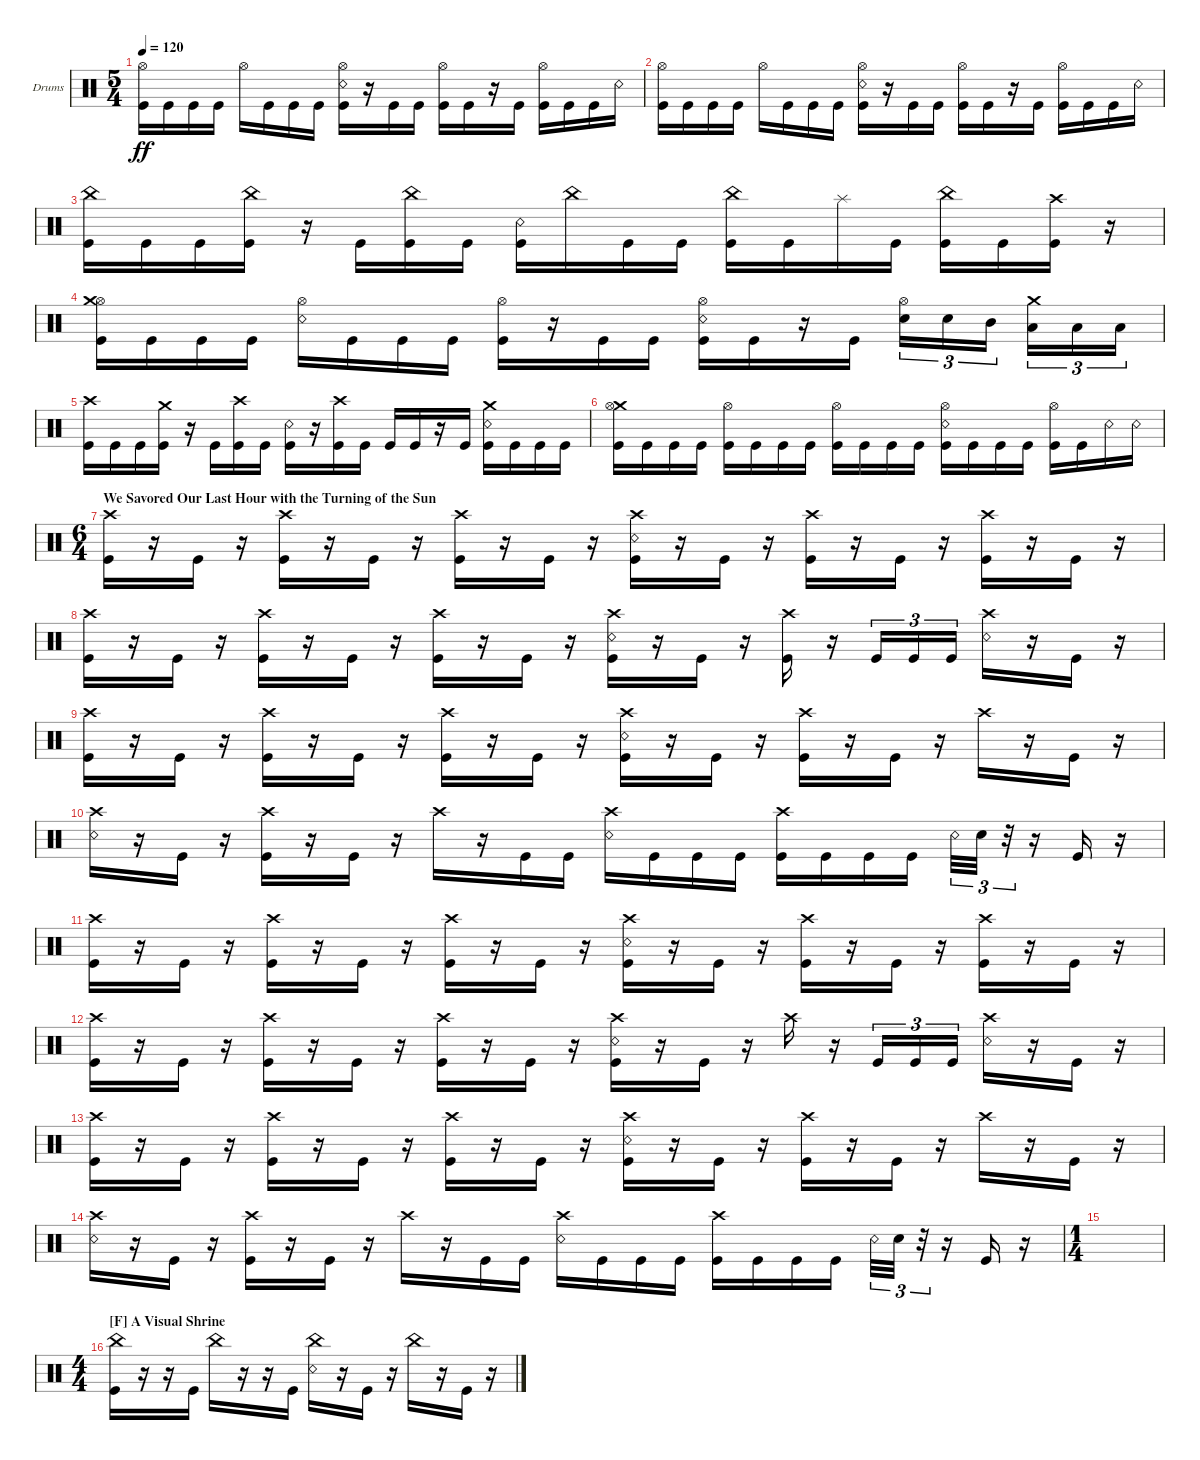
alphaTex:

\defaultSystemsLayout 4
\bracketExtendMode groupsimilarinstruments
\firstSystemTrackNameOrientation horizontal
\otherSystemsTrackNameOrientation horizontal
\track ("Drumkit" "Drums") {instrument percussion}
\staff {score}
\articulation defaults
\ts (5 4)
\tempo 120
\clef neutral
\ks c
("Hi-Hat (open)" "Kick (hit)").16{dy ff} "Kick (hit)".16 "Kick (hit)".16 "Kick (hit)".16 "Hi-Hat (open)".16 "Kick (hit)".16 "Kick (hit)".16 "Kick (hit)".16 ("Hi-Hat (open)" "Snare (rim shot)" "Kick (hit)").16 r.16 "Kick (hit)".16 "Kick (hit)".16 ("Hi-Hat (open)" "Kick (hit)").16 "Kick (hit)".16 r.16 "Kick (hit)".16 ("Hi-Hat (open)" "Kick (hit)").16 "Kick (hit)".16 "Kick (hit)".16 "Snare (rim shot)".16 |
("Hi-Hat (open)" "Kick (hit)").16 "Kick (hit)".16 "Kick (hit)".16 "Kick (hit)".16 "Hi-Hat (open)".16 "Kick (hit)".16 "Kick (hit)".16 "Kick (hit)".16 ("Hi-Hat (open)" "Snare (rim shot)" "Kick (hit)").16 r.16 "Kick (hit)".16 "Kick (hit)".16 ("Hi-Hat (open)" "Kick (hit)").16 "Kick (hit)".16 r.16 "Kick (hit)".16 ("Hi-Hat (open)" "Kick (hit)").16 "Kick (hit)".16 "Kick (hit)".16 "Snare (rim shot)".16 |
("China (hit)" "Kick (hit)").16 "Kick (hit)".16 "Kick (hit)".16 ("China (hit)" "Kick (hit)").16 r.16 "Kick (hit)".16 ("China (hit)" "Kick (hit)").16 "Kick (hit)".16 ("Kick (hit)" "Snare (rim shot)").16 "China (hit)".16 "Kick (hit)".16 "Kick (hit)".16 ("China (hit)" "Kick (hit)").16 "Kick (hit)".16 "Splash (hit)".16 "Kick (hit)".16 ("China (hit)" "Kick (hit)").16 "Kick (hit)".16 ("Crash high (hit)" "Kick (hit)").16 r.16 |
("Hi-Hat (open)" "Crash medium (hit)" "Kick (hit)").16 "Kick (hit)".16 "Kick (hit)".16 "Kick (hit)".16 ("Hi-Hat (open)" "Snare (rim shot)").16 "Kick (hit)".16 "Kick (hit)".16 "Kick (hit)".16 ("Hi-Hat (open)" "Kick (hit)").16 r.16 "Kick (hit)".16 "Kick (hit)".16 ("Hi-Hat (open)" "Kick (hit)" "Snare (rim shot)").16 "Kick (hit)".16 r.16 "Kick (hit)".16 ("Hi-Hat (open)" "Snare (hit) 2").16{tu (3 2)} "Snare (hit) 2".16{tu (3 2)} "Mid Tom (hit)".16{tu (3 2)} ("Crash medium (hit)" "Low Tom (hit)").16{tu (3 2)} "Low Tom (hit)".16{tu (3 2)} "Low Tom (hit)".16{tu (3 2)} |
("Crash high (hit)" "Kick (hit)").16 "Kick (hit)".16 "Kick (hit)".16 ("Crash medium (hit)" "Kick (hit)").16 r.16 "Kick (hit)".16 ("Crash high (hit)" "Kick (hit)").16 "Kick (hit)".16 ("Kick (hit)" "Snare (rim shot)").16 r.16 ("Kick (hit)" "Crash high (hit)").16 "Kick (hit)".16 "Kick (hit)".16 "Kick (hit)".16 r.16 "Kick (hit)".16 ("Kick (hit)" "Snare (rim shot)" "Crash medium (hit)").16 "Kick (hit)".16 "Kick (hit)".16 "Kick (hit)".16 |
("Kick (hit)" "Crash medium (hit)" "Hi-Hat (open)").16 "Kick (hit)".16 "Kick (hit)".16 "Kick (hit)".16 ("Kick (hit)" "Hi-Hat (open)").16 "Kick (hit)".16 "Kick (hit)".16 "Kick (hit)".16 ("Kick (hit)" "Hi-Hat (open)").16 "Kick (hit)".16 "Kick (hit)".16 "Kick (hit)".16 ("Kick (hit)" "Hi-Hat (open)" "Snare (rim shot)").16 "Kick (hit)".16 "Kick (hit)".16 "Kick (hit)".16 ("Kick (hit)" "Hi-Hat (open)").16 "Kick (hit)".16 "Snare (rim shot)".16 "Snare (rim shot)".16 |
\ts (6 4)
\section ("" "We Savored Our Last Hour with the Turning of the Sun")
("Crash high (hit)" "Kick (hit)").16 r.16 "Kick (hit)".16 r.16 ("Crash high (hit)" "Kick (hit)").16 r.16 "Kick (hit)".16 r.16 ("Crash high (hit)" "Kick (hit)").16 r.16 "Kick (hit)".16 r.16 ("Crash high (hit)" "Snare (rim shot)" "Kick (hit)").16 r.16 "Kick (hit)".16 r.16 ("Crash high (hit)" "Kick (hit)").16 r.16 "Kick (hit)".16 r.16 ("Crash high (hit)" "Kick (hit)").16 r.16 "Kick (hit)".16 r.16 |
("Crash high (hit)" "Kick (hit)").16 r.16 "Kick (hit)".16 r.16 ("Crash high (hit)" "Kick (hit)").16 r.16 "Kick (hit)".16 r.16 ("Crash high (hit)" "Kick (hit)").16 r.16 "Kick (hit)".16 r.16 ("Crash high (hit)" "Snare (rim shot)" "Kick (hit)").16 r.16 "Kick (hit)".16 r.16 ("Crash high (hit)" "Kick (hit)").16 r.16 "Kick (hit)".16{tu (3 2)} "Kick (hit)".16{tu (3 2)} "Kick (hit)".16{tu (3 2)} ("Crash high (hit)" "Snare (rim shot)").16 r.16 "Kick (hit)".16 r.16 |
("Crash high (hit)" "Kick (hit)").16 r.16 "Kick (hit)".16 r.16 ("Crash high (hit)" "Kick (hit)").16 r.16 "Kick (hit)".16 r.16 ("Crash high (hit)" "Kick (hit)").16 r.16 "Kick (hit)".16 r.16 ("Crash high (hit)" "Snare (rim shot)" "Kick (hit)").16 r.16 "Kick (hit)".16 r.16 ("Crash high (hit)" "Kick (hit)").16 r.16 "Kick (hit)".16 r.16 "Crash high (hit)".16 r.16 "Kick (hit)".16 r.16 |
("Snare (rim shot)" "Crash high (hit)").16 r.16 "Kick (hit)".16 r.16 ("Kick (hit)" "Crash high (hit)").16 r.16 "Kick (hit)".16 r.16 "Crash high (hit)".16 r.16 "Kick (hit)".16 "Kick (hit)".16 ("Snare (rim shot)" "Crash high (hit)").16 "Kick (hit)".16 "Kick (hit)".16 "Kick (hit)".16 ("Kick (hit)" "Crash high (hit)").16 "Kick (hit)".16 "Kick (hit)".16 "Kick (hit)".16 "Snare (rim shot)".32{tu (3 2)} "Snare (hit) 2".32{tu (3 2)} r.32{tu (3 2)} r.16 "Kick (hit)".16 r.16 |
("Crash high (hit)" "Kick (hit)").16 r.16 "Kick (hit)".16 r.16 ("Crash high (hit)" "Kick (hit)").16 r.16 "Kick (hit)".16 r.16 ("Crash high (hit)" "Kick (hit)").16 r.16 "Kick (hit)".16 r.16 ("Crash high (hit)" "Snare (rim shot)" "Kick (hit)").16 r.16 "Kick (hit)".16 r.16 ("Crash high (hit)" "Kick (hit)").16 r.16 "Kick (hit)".16 r.16 ("Crash high (hit)" "Kick (hit)").16 r.16 "Kick (hit)".16 r.16 |
("Crash high (hit)" "Kick (hit)").16 r.16 "Kick (hit)".16 r.16 ("Crash high (hit)" "Kick (hit)").16 r.16 "Kick (hit)".16 r.16 ("Crash high (hit)" "Kick (hit)").16 r.16 "Kick (hit)".16 r.16 ("Crash high (hit)" "Snare (rim shot)" "Kick (hit)").16 r.16 "Kick (hit)".16 r.16 "Crash high (hit)".16 r.16 "Kick (hit)".16{tu (3 2)} "Kick (hit)".16{tu (3 2)} "Kick (hit)".16{tu (3 2)} ("Crash high (hit)" "Snare (rim shot)").16 r.16 "Kick (hit)".16 r.16 |
("Crash high (hit)" "Kick (hit)").16 r.16 "Kick (hit)".16 r.16 ("Crash high (hit)" "Kick (hit)").16 r.16 "Kick (hit)".16 r.16 ("Crash high (hit)" "Kick (hit)").16 r.16 "Kick (hit)".16 r.16 ("Crash high (hit)" "Snare (rim shot)" "Kick (hit)").16 r.16 "Kick (hit)".16 r.16 ("Crash high (hit)" "Kick (hit)").16 r.16 "Kick (hit)".16 r.16 "Crash high (hit)".16 r.16 "Kick (hit)".16 r.16 |
("Snare (rim shot)" "Crash high (hit)").16 r.16 "Kick (hit)".16 r.16 ("Kick (hit)" "Crash high (hit)").16 r.16 "Kick (hit)".16 r.16 "Crash high (hit)".16 r.16 "Kick (hit)".16 "Kick (hit)".16 ("Snare (rim shot)" "Crash high (hit)").16 "Kick (hit)".16 "Kick (hit)".16 "Kick (hit)".16 ("Kick (hit)" "Crash high (hit)").16 "Kick (hit)".16 "Kick (hit)".16 "Kick (hit)".16 "Snare (rim shot)".32{tu (3 2)} "Snare (hit) 2".32{tu (3 2)} r.32{tu (3 2)} r.16 "Kick (hit)".16 r.16 |
\ts (1 4)
|
\ts (4 4)
\section ("F" "A Visual Shrine")
("China (hit)" "Kick (hit)").16 r.16 r.16 "Kick (hit)".16 "China (hit)".16 r.16 r.16 "Kick (hit)".16 ("China (hit)" "Snare (rim shot)").16 r.16 "Kick (hit)".16 r.16 "China (hit)".16 r.16 "Kick (hit)".16 r.16
